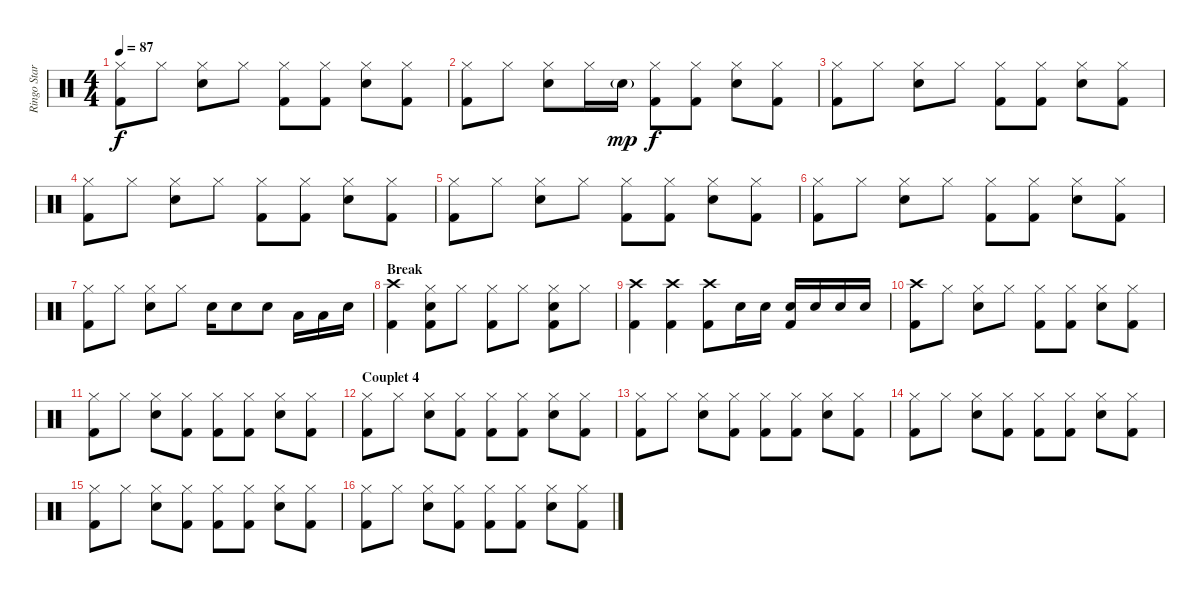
\track ("Ringo Starr (Batterie)" "Ringo Star") {instrument percussion}
\staff {score}
\articulation defaults
\ts (4 4)
\tempo 87
\clef neutral
\ks c
("Hi-Hat (closed)" "Kick (hit) 2").8{dy f} "Hi-Hat (closed)".8 ("Hi-Hat (closed)" "Snare (hit) 2").8 "Hi-Hat (closed)".8 ("Hi-Hat (closed)" "Kick (hit) 2").8 ("Hi-Hat (closed)" "Kick (hit) 2").8 ("Hi-Hat (closed)" "Snare (hit) 2").8 ("Hi-Hat (closed)" "Kick (hit) 2").8 |
("Hi-Hat (closed)" "Kick (hit) 2").8 "Hi-Hat (closed)".8 ("Hi-Hat (closed)" "Snare (hit) 2").8 "Hi-Hat (closed)".16 "Snare (hit) 2"{g}.16{dy mp} ("Hi-Hat (closed)" "Kick (hit) 2").8{dy f} ("Hi-Hat (closed)" "Kick (hit) 2").8 ("Hi-Hat (closed)" "Snare (hit) 2").8 ("Hi-Hat (closed)" "Kick (hit) 2").8 |
("Hi-Hat (closed)" "Kick (hit) 2").8 "Hi-Hat (closed)".8 ("Hi-Hat (closed)" "Snare (hit) 2").8 "Hi-Hat (closed)".8 ("Hi-Hat (closed)" "Kick (hit) 2").8 ("Hi-Hat (closed)" "Kick (hit) 2").8 ("Hi-Hat (closed)" "Snare (hit) 2").8 ("Hi-Hat (closed)" "Kick (hit) 2").8 |
("Hi-Hat (closed)" "Kick (hit) 2").8 "Hi-Hat (closed)".8 ("Hi-Hat (closed)" "Snare (hit) 2").8 "Hi-Hat (closed)".8 ("Hi-Hat (closed)" "Kick (hit) 2").8 ("Hi-Hat (closed)" "Kick (hit) 2").8 ("Hi-Hat (closed)" "Snare (hit) 2").8 ("Hi-Hat (closed)" "Kick (hit) 2").8 |
("Hi-Hat (closed)" "Kick (hit) 2").8 "Hi-Hat (closed)".8 ("Hi-Hat (closed)" "Snare (hit) 2").8 "Hi-Hat (closed)".8 ("Hi-Hat (closed)" "Kick (hit) 2").8 ("Hi-Hat (closed)" "Kick (hit) 2").8 ("Hi-Hat (closed)" "Snare (hit) 2").8 ("Hi-Hat (closed)" "Kick (hit) 2").8 |
("Hi-Hat (closed)" "Kick (hit) 2").8 "Hi-Hat (closed)".8 ("Hi-Hat (closed)" "Snare (hit) 2").8 "Hi-Hat (closed)".8 ("Hi-Hat (closed)" "Kick (hit) 2").8 ("Hi-Hat (closed)" "Kick (hit) 2").8 ("Hi-Hat (closed)" "Snare (hit) 2").8 ("Hi-Hat (closed)" "Kick (hit) 2").8 |
("Hi-Hat (closed)" "Kick (hit) 2").8 "Hi-Hat (closed)".8 ("Hi-Hat (closed)" "Snare (hit) 2").8 "Hi-Hat (closed)".8 "Snare (hit) 2".16 "Snare (hit) 2".8 "Snare (hit) 2".8 "Low Tom (hit)".16 "Low Tom (hit)".16 "Snare (hit) 2".16 |
\section ("" "Break")
("Crash high (hit)" "Kick (hit) 2").4 ("Hi-Hat (closed)" "Snare (hit) 2" "Kick (hit) 2").8 "Hi-Hat (closed)".8 ("Hi-Hat (closed)" "Kick (hit) 2").8 "Hi-Hat (closed)".8 ("Hi-Hat (closed)" "Snare (hit) 2" "Kick (hit) 2").8 "Hi-Hat (closed)".8 |
("Crash high (hit)" "Kick (hit) 2").4 ("Crash high (hit)" "Kick (hit) 2").4 ("Crash high (hit)" "Kick (hit) 2").8 "Snare (hit) 2".16 "Snare (hit) 2".16 ("Snare (hit) 2" "Kick (hit) 2").16 "Snare (hit) 2".16 "Snare (hit) 2".16 "Snare (hit) 2".16 |
("Crash high (hit)" "Kick (hit) 2").8 "Hi-Hat (closed)".8 ("Hi-Hat (closed)" "Snare (hit) 2").8 "Hi-Hat (closed)".8 ("Hi-Hat (closed)" "Kick (hit) 2").8 ("Hi-Hat (closed)" "Kick (hit) 2").8 ("Hi-Hat (closed)" "Snare (hit) 2").8 ("Hi-Hat (closed)" "Kick (hit) 2").8 |
("Hi-Hat (closed)" "Kick (hit) 2").8 "Hi-Hat (closed)".8 ("Hi-Hat (closed)" "Snare (hit) 2").8 ("Hi-Hat (closed)" "Kick (hit) 2").8 ("Hi-Hat (closed)" "Kick (hit) 2").8 ("Hi-Hat (closed)" "Kick (hit) 2").8 ("Hi-Hat (closed)" "Snare (hit) 2").8 ("Hi-Hat (closed)" "Kick (hit) 2").8 |
\section ("" "Couplet 4")
("Hi-Hat (closed)" "Kick (hit) 2").8 "Hi-Hat (closed)".8 ("Hi-Hat (closed)" "Snare (hit) 2").8 ("Hi-Hat (closed)" "Kick (hit) 2").8 ("Hi-Hat (closed)" "Kick (hit) 2").8 ("Hi-Hat (closed)" "Kick (hit) 2").8 ("Hi-Hat (closed)" "Snare (hit) 2").8 ("Hi-Hat (closed)" "Kick (hit) 2").8 |
("Hi-Hat (closed)" "Kick (hit) 2").8 "Hi-Hat (closed)".8 ("Hi-Hat (closed)" "Snare (hit) 2").8 ("Hi-Hat (closed)" "Kick (hit) 2").8 ("Hi-Hat (closed)" "Kick (hit) 2").8 ("Hi-Hat (closed)" "Kick (hit) 2").8 ("Hi-Hat (closed)" "Snare (hit) 2").8 ("Hi-Hat (closed)" "Kick (hit) 2").8 |
("Hi-Hat (closed)" "Kick (hit) 2").8 "Hi-Hat (closed)".8 ("Hi-Hat (closed)" "Snare (hit) 2").8 ("Hi-Hat (closed)" "Kick (hit) 2").8 ("Hi-Hat (closed)" "Kick (hit) 2").8 ("Hi-Hat (closed)" "Kick (hit) 2").8 ("Hi-Hat (closed)" "Snare (hit) 2").8 ("Hi-Hat (closed)" "Kick (hit) 2").8 |
("Hi-Hat (closed)" "Kick (hit) 2").8 "Hi-Hat (closed)".8 ("Hi-Hat (closed)" "Snare (hit) 2").8 ("Hi-Hat (closed)" "Kick (hit) 2").8 ("Hi-Hat (closed)" "Kick (hit) 2").8 ("Hi-Hat (closed)" "Kick (hit) 2").8 ("Hi-Hat (closed)" "Snare (hit) 2").8 ("Hi-Hat (closed)" "Kick (hit) 2").8 |
("Hi-Hat (closed)" "Kick (hit) 2").8 "Hi-Hat (closed)".8 ("Hi-Hat (closed)" "Snare (hit) 2").8 ("Hi-Hat (closed)" "Kick (hit) 2").8 ("Hi-Hat (closed)" "Kick (hit) 2").8 ("Hi-Hat (closed)" "Kick (hit) 2").8 ("Hi-Hat (closed)" "Snare (hit) 2").8 ("Hi-Hat (closed)" "Kick (hit) 2").8
